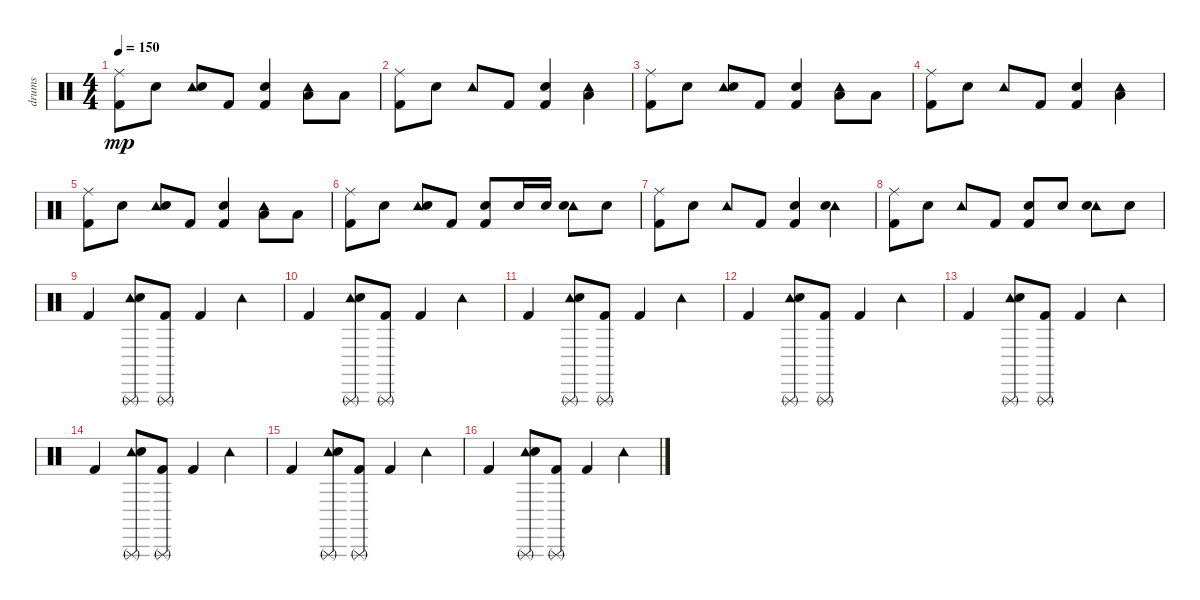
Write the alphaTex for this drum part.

\track ("drums" "drums") {instrument percussion}
\staff {score}
\articulation defaults
\ts (4 4)
\tempo 150
\clef neutral
\ks c
("Ride (middle)" "Kick (hit) 2").8{dy mp} "Snare (hit) 2".8 ("Tambourine (hit)" "Snare (hit) 2").8 "Kick (hit) 2".8 ("Kick (hit) 2" "Snare (hit) 2").4 ("Tambourine (hit)" "Low Tom (hit)").8 "Low Tom (hit)".8 |
("Ride (middle)" "Kick (hit) 2").8 "Snare (hit) 2".8 "Tambourine (hit)".8 "Kick (hit) 2".8 ("Kick (hit) 2" "Snare (hit) 2").4 ("Tambourine (hit)" "Low Tom (hit)").4 |
("Ride (middle)" "Kick (hit) 2").8 "Snare (hit) 2".8 ("Tambourine (hit)" "Snare (hit) 2").8 "Kick (hit) 2".8 ("Kick (hit) 2" "Snare (hit) 2").4 ("Tambourine (hit)" "Low Tom (hit)").8 "Low Tom (hit)".8 |
("Ride (middle)" "Kick (hit) 2").8 "Snare (hit) 2".8 "Tambourine (hit)".8 "Kick (hit) 2".8 ("Kick (hit) 2" "Snare (hit) 2").4 ("Tambourine (hit)" "Low Tom (hit)").4 |
("Ride (middle)" "Kick (hit) 2").8 "Snare (hit) 2".8 ("Tambourine (hit)" "Snare (hit) 2").8 "Kick (hit) 2".8 ("Kick (hit) 2" "Snare (hit) 2").4 ("Tambourine (hit)" "Low Tom (hit)").8 "Low Tom (hit)".8 |
("Ride (middle)" "Kick (hit) 2").8 "Snare (hit) 2".8 ("Tambourine (hit)" "Snare (hit) 2").8 "Kick (hit) 2".8 ("Kick (hit) 2" "Snare (hit) 2").8 "Snare (hit) 2".16 "Snare (hit) 2".16 ("Tambourine (hit)" "Snare (hit) 2").8 "Snare (hit) 2".8 |
("Ride (middle)" "Kick (hit) 2").8 "Snare (hit) 2".8 "Tambourine (hit)".8 "Kick (hit) 2".8 ("Kick (hit) 2" "Snare (hit) 2").4 ("Tambourine (hit)" "Snare (hit) 2").4 |
("Ride (middle)" "Kick (hit) 2").8 "Snare (hit) 2".8 "Tambourine (hit)".8 "Kick (hit) 2".8 ("Kick (hit) 2" "Snare (hit) 2").8 "Snare (hit) 2".8 ("Tambourine (hit)" "Snare (hit) 2").8 "Snare (hit) 2".8 |
"Kick (hit) 2".4 ("Triangle (rnute)" "Tambourine (hit)" "Snare (hit) 2").8 ("Triangle (rnute)" "Kick (hit) 2").8 "Kick (hit) 2".4 "Tambourine (hit)".4 |
"Kick (hit) 2".4 ("Triangle (rnute)" "Tambourine (hit)" "Snare (hit) 2").8 ("Triangle (rnute)" "Kick (hit) 2").8 "Kick (hit) 2".4 "Tambourine (hit)".4 |
"Kick (hit) 2".4 ("Triangle (rnute)" "Tambourine (hit)" "Snare (hit) 2").8 ("Triangle (rnute)" "Kick (hit) 2").8 "Kick (hit) 2".4 "Tambourine (hit)".4 |
"Kick (hit) 2".4 ("Triangle (rnute)" "Tambourine (hit)" "Snare (hit) 2").8 ("Triangle (rnute)" "Kick (hit) 2").8 "Kick (hit) 2".4 "Tambourine (hit)".4 |
"Kick (hit) 2".4 ("Triangle (rnute)" "Tambourine (hit)" "Snare (hit) 2").8 ("Triangle (rnute)" "Kick (hit) 2").8 "Kick (hit) 2".4 "Tambourine (hit)".4 |
"Kick (hit) 2".4 ("Triangle (rnute)" "Tambourine (hit)" "Snare (hit) 2").8 ("Triangle (rnute)" "Kick (hit) 2").8 "Kick (hit) 2".4 "Tambourine (hit)".4 |
"Kick (hit) 2".4 ("Triangle (rnute)" "Tambourine (hit)" "Snare (hit) 2").8 ("Triangle (rnute)" "Kick (hit) 2").8 "Kick (hit) 2".4 "Tambourine (hit)".4 |
"Kick (hit) 2".4 ("Triangle (rnute)" "Tambourine (hit)" "Snare (hit) 2").8 ("Triangle (rnute)" "Kick (hit) 2").8 "Kick (hit) 2".4 "Tambourine (hit)".4
